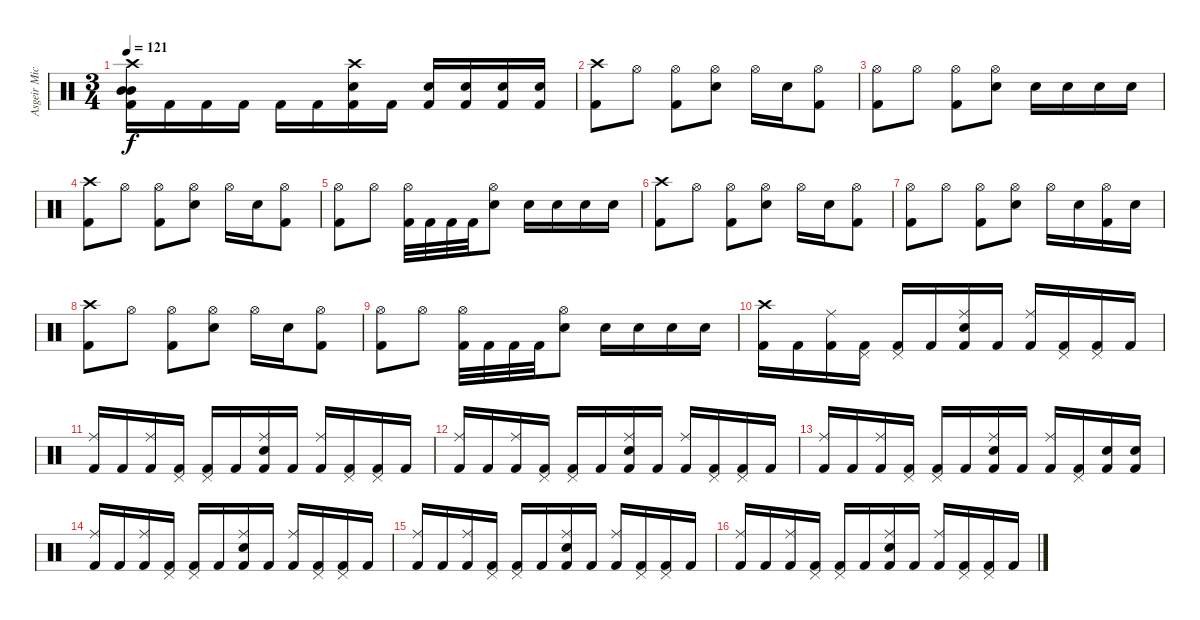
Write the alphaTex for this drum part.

\track ("Asgeir Mickelson" "Asgeir Mic") {instrument percussion}
\staff {score}
\articulation defaults
\ts (3 4)
\tempo 121
\clef neutral
\ks c
("Crash high (hit)" "Mid Tom (hit)" "Mid Tom (hit)" "Kick (hit) 2").16{dy f} "Kick (hit) 2".16 "Kick (hit) 2".16 "Kick (hit) 2".16 "Kick (hit) 2".16 "Kick (hit) 2".16 ("Crash high (hit)" "Electric Snare (hit)" "Kick (hit) 2").16 "Kick (hit) 2".16 ("Electric Snare (hit)" "Kick (hit) 2").16 ("Electric Snare (hit)" "Kick (hit) 2").16 ("Electric Snare (hit)" "Kick (hit) 2").16 ("Electric Snare (hit)" "Kick (hit) 2").16 |
("Crash high (hit)" "Kick (hit) 2").8 "Hi-Hat (open)".8 ("Hi-Hat (open)" "Kick (hit) 2").8 ("Hi-Hat (open)" "Electric Snare (hit)").8 "Hi-Hat (open)".16 "Electric Snare (hit)".16 ("Hi-Hat (open)" "Kick (hit) 2").8 |
("Hi-Hat (open)" "Kick (hit) 2").8 "Hi-Hat (open)".8 ("Hi-Hat (open)" "Kick (hit) 2").8 ("Hi-Hat (open)" "Electric Snare (hit)").8 "Electric Snare (hit)".16 "Electric Snare (hit)".16 "Electric Snare (hit)".16 "Electric Snare (hit)".16 |
("Crash high (hit)" "Kick (hit) 2").8 "Hi-Hat (open)".8 ("Hi-Hat (open)" "Kick (hit) 2").8 ("Hi-Hat (open)" "Electric Snare (hit)").8 "Hi-Hat (open)".16 "Electric Snare (hit)".16 ("Hi-Hat (open)" "Kick (hit) 2").8 |
("Hi-Hat (open)" "Kick (hit) 2").8 "Hi-Hat (open)".8 ("Hi-Hat (open)" "Kick (hit) 2").32 "Kick (hit) 2".32 "Kick (hit) 2".32 "Kick (hit) 2".32 ("Hi-Hat (open)" "Electric Snare (hit)").8 "Electric Snare (hit)".16 "Electric Snare (hit)".16 "Electric Snare (hit)".16 "Electric Snare (hit)".16 |
("Crash high (hit)" "Kick (hit) 2").8 "Hi-Hat (open)".8 ("Hi-Hat (open)" "Kick (hit) 2").8 ("Hi-Hat (open)" "Electric Snare (hit)").8 "Hi-Hat (open)".16 "Electric Snare (hit)".16 ("Hi-Hat (open)" "Kick (hit) 2").8 |
("Hi-Hat (open)" "Kick (hit) 2").8 "Hi-Hat (open)".8 ("Hi-Hat (open)" "Kick (hit) 2").8 ("Hi-Hat (open)" "Electric Snare (hit)").8 "Hi-Hat (open)".16 "Electric Snare (hit)".16 ("Hi-Hat (open)" "Kick (hit) 2").16 "Electric Snare (hit)".16 |
("Crash high (hit)" "Kick (hit) 2").8 "Hi-Hat (open)".8 ("Hi-Hat (open)" "Kick (hit) 2").8 ("Hi-Hat (open)" "Electric Snare (hit)").8 "Hi-Hat (open)".16 "Electric Snare (hit)".16 ("Hi-Hat (open)" "Kick (hit) 2").8 |
("Hi-Hat (open)" "Kick (hit) 2").8 "Hi-Hat (open)".8 ("Hi-Hat (open)" "Kick (hit) 2").32 "Kick (hit) 2".32 "Kick (hit) 2".32 "Kick (hit) 2".32 ("Hi-Hat (open)" "Electric Snare (hit)").8 "Electric Snare (hit)".16 "Electric Snare (hit)".16 "Electric Snare (hit)".16 "Electric Snare (hit)".16 |
("Crash high (hit)" "Kick (hit) 2").16 "Kick (hit) 2".16 ("Ride (middle)" "Kick (hit) 2").16 ("Pedal Hi-Hat (hit)" "Kick (hit) 2").16 ("Pedal Hi-Hat (hit)" "Kick (hit) 2").16 "Kick (hit) 2".16 ("Ride (middle)" "Electric Snare (hit)" "Kick (hit) 2").16 "Kick (hit) 2".16 ("Ride (middle)" "Kick (hit) 2").16 ("Pedal Hi-Hat (hit)" "Kick (hit) 2").16 ("Pedal Hi-Hat (hit)" "Kick (hit) 2").16 "Kick (hit) 2".16 |
("Ride (middle)" "Kick (hit) 2").16 "Kick (hit) 2".16 ("Ride (middle)" "Kick (hit) 2").16 ("Pedal Hi-Hat (hit)" "Kick (hit) 2").16 ("Pedal Hi-Hat (hit)" "Kick (hit) 2").16 "Kick (hit) 2".16 ("Ride (middle)" "Electric Snare (hit)" "Kick (hit) 2").16 "Kick (hit) 2".16 ("Ride (middle)" "Kick (hit) 2").16 ("Pedal Hi-Hat (hit)" "Kick (hit) 2").16 ("Pedal Hi-Hat (hit)" "Kick (hit) 2").16 "Kick (hit) 2".16 |
("Ride (middle)" "Kick (hit) 2").16 "Kick (hit) 2".16 ("Ride (middle)" "Kick (hit) 2").16 ("Pedal Hi-Hat (hit)" "Kick (hit) 2").16 ("Pedal Hi-Hat (hit)" "Kick (hit) 2").16 "Kick (hit) 2".16 ("Ride (middle)" "Electric Snare (hit)" "Kick (hit) 2").16 "Kick (hit) 2".16 ("Ride (middle)" "Kick (hit) 2").16 ("Pedal Hi-Hat (hit)" "Kick (hit) 2").16 ("Pedal Hi-Hat (hit)" "Kick (hit) 2").16 "Kick (hit) 2".16 |
("Ride (middle)" "Kick (hit) 2").16 "Kick (hit) 2".16 ("Ride (middle)" "Kick (hit) 2").16 ("Pedal Hi-Hat (hit)" "Kick (hit) 2").16 ("Pedal Hi-Hat (hit)" "Kick (hit) 2").16 "Kick (hit) 2".16 ("Ride (middle)" "Electric Snare (hit)" "Kick (hit) 2").16 "Kick (hit) 2".16 ("Ride (middle)" "Kick (hit) 2").16 ("Pedal Hi-Hat (hit)" "Kick (hit) 2").16 ("Electric Snare (hit)" "Kick (hit) 2").16 ("Electric Snare (hit)" "Kick (hit) 2").16 |
("Ride (middle)" "Kick (hit) 2").16 "Kick (hit) 2".16 ("Ride (middle)" "Kick (hit) 2").16 ("Pedal Hi-Hat (hit)" "Kick (hit) 2").16 ("Pedal Hi-Hat (hit)" "Kick (hit) 2").16 "Kick (hit) 2".16 ("Ride (middle)" "Electric Snare (hit)" "Kick (hit) 2").16 "Kick (hit) 2".16 ("Ride (middle)" "Kick (hit) 2").16 ("Pedal Hi-Hat (hit)" "Kick (hit) 2").16 ("Pedal Hi-Hat (hit)" "Kick (hit) 2").16 "Kick (hit) 2".16 |
("Ride (middle)" "Kick (hit) 2").16 "Kick (hit) 2".16 ("Ride (middle)" "Kick (hit) 2").16 ("Pedal Hi-Hat (hit)" "Kick (hit) 2").16 ("Pedal Hi-Hat (hit)" "Kick (hit) 2").16 "Kick (hit) 2".16 ("Ride (middle)" "Electric Snare (hit)" "Kick (hit) 2").16 "Kick (hit) 2".16 ("Ride (middle)" "Kick (hit) 2").16 ("Pedal Hi-Hat (hit)" "Kick (hit) 2").16 ("Pedal Hi-Hat (hit)" "Kick (hit) 2").16 "Kick (hit) 2".16 |
("Ride (middle)" "Kick (hit) 2").16 "Kick (hit) 2".16 ("Ride (middle)" "Kick (hit) 2").16 ("Pedal Hi-Hat (hit)" "Kick (hit) 2").16 ("Pedal Hi-Hat (hit)" "Kick (hit) 2").16 "Kick (hit) 2".16 ("Ride (middle)" "Electric Snare (hit)" "Kick (hit) 2").16 "Kick (hit) 2".16 ("Ride (middle)" "Kick (hit) 2").16 ("Pedal Hi-Hat (hit)" "Kick (hit) 2").16 ("Pedal Hi-Hat (hit)" "Kick (hit) 2").16 "Kick (hit) 2".16
